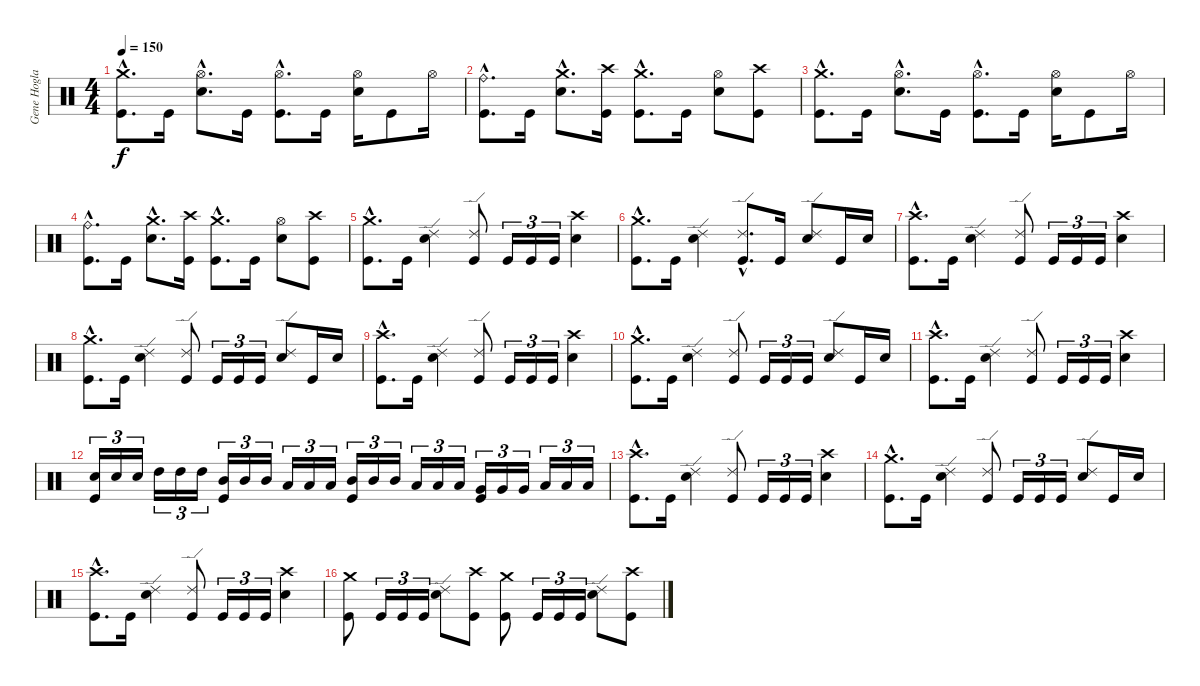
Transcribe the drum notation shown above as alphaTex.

\track ("Gene Hoglan" "Gene Hogla") {instrument percussion}
\staff {score}
\articulation defaults
\ts (4 4)
\tempo 150
\clef neutral
\ks c
("Crash medium (hit)"{hac} "Kick (hit)"{hac}).8{d dy f} "Kick (hit)".16 ("Hi-Hat (open)"{hac} "Electric Snare (hit)"{hac}).8{d} "Kick (hit)".16 ("Hi-Hat (open)"{hac} "Kick (hit)"{hac}).8{d} "Kick (hit)".16 ("Hi-Hat (open)" "Electric Snare (hit)").16 "Kick (hit)".8 "Hi-Hat (open)".16 |
("Ride (bell)"{hac} "Kick (hit)"{hac}).8{d} "Kick (hit)".16 ("Crash medium (hit)"{hac} "Electric Snare (hit)"{hac}).8{d} ("Crash high (hit)" "Kick (hit)").16 ("Crash medium (hit)"{hac} "Kick (hit)"{hac}).8{d} "Kick (hit)".16 ("Hi-Hat (open)" "Electric Snare (hit)").8 ("Crash high (hit)" "Kick (hit)").8 |
("Crash medium (hit)"{hac} "Kick (hit)"{hac}).8{d} "Kick (hit)".16 ("Hi-Hat (open)"{hac} "Electric Snare (hit)"{hac}).8{d} "Kick (hit)".16 ("Hi-Hat (open)"{hac} "Kick (hit)"{hac}).8{d} "Kick (hit)".16 ("Hi-Hat (open)" "Electric Snare (hit)").16 "Kick (hit)".8 "Hi-Hat (open)".16 |
("Ride (bell)"{hac} "Kick (hit)"{hac}).8{d} "Kick (hit)".16 ("Crash medium (hit)"{hac} "Electric Snare (hit)"{hac}).8{d} ("Crash high (hit)" "Kick (hit)").16 ("Crash medium (hit)"{hac} "Kick (hit)"{hac}).8{d} "Kick (hit)".16 ("Hi-Hat (open)" "Electric Snare (hit)").8 ("Crash high (hit)" "Kick (hit)").8 |
("Crash medium (hit)"{hac} "Kick (hit)"{hac}).8{d} "Kick (hit)".16 ("Ride (edge) 2" "Electric Snare (hit)").4 ("Ride (edge) 2" "Kick (hit)").8 "Kick (hit)".16{tu (3 2)} "Kick (hit)".16{tu (3 2)} "Kick (hit)".16{tu (3 2)} ("Crash high (hit)" "Electric Snare (hit)").4 |
("Crash medium (hit)"{hac} "Kick (hit)"{hac}).8{d} "Kick (hit)".16 ("Ride (edge) 2" "Electric Snare (hit)").4 ("Ride (edge) 2"{hac} "Kick (hit)"{hac}).8{d} "Kick (hit)".16 ("Ride (edge) 2" "Electric Snare (hit)").8 "Kick (hit)".16 "Electric Snare (hit)".16 |
("Crash high (hit)"{hac} "Kick (hit)"{hac}).8{d} "Kick (hit)".16 ("Ride (edge) 2" "Electric Snare (hit)").4 ("Ride (edge) 2" "Kick (hit)").8 "Kick (hit)".16{tu (3 2)} "Kick (hit)".16{tu (3 2)} "Kick (hit)".16{tu (3 2)} ("Crash high (hit)" "Electric Snare (hit)").4 |
("Crash medium (hit)"{hac} "Kick (hit)"{hac}).8{d} "Kick (hit)".16 ("Ride (edge) 2" "Electric Snare (hit)").4 ("Ride (edge) 2" "Kick (hit)").8 "Kick (hit)".16{tu (3 2)} "Kick (hit)".16{tu (3 2)} "Kick (hit)".16{tu (3 2)} ("Ride (edge) 2" "Electric Snare (hit)").8 "Kick (hit)".16 "Electric Snare (hit)".16 |
("Crash high (hit)"{hac} "Kick (hit)"{hac}).8{d} "Kick (hit)".16 ("Ride (edge) 2" "Electric Snare (hit)").4 ("Ride (edge) 2" "Kick (hit)").8 "Kick (hit)".16{tu (3 2)} "Kick (hit)".16{tu (3 2)} "Kick (hit)".16{tu (3 2)} ("Crash high (hit)" "Electric Snare (hit)").4 |
("Crash medium (hit)"{hac} "Kick (hit)"{hac}).8{d} "Kick (hit)".16 ("Ride (edge) 2" "Electric Snare (hit)").4 ("Ride (edge) 2" "Kick (hit)").8 "Kick (hit)".16{tu (3 2)} "Kick (hit)".16{tu (3 2)} "Kick (hit)".16{tu (3 2)} ("Ride (edge) 2" "Electric Snare (hit)").8 "Kick (hit)".16 "Electric Snare (hit)".16 |
("Crash high (hit)"{hac} "Kick (hit)"{hac}).8{d} "Kick (hit)".16 ("Ride (edge) 2" "Electric Snare (hit)").4 ("Ride (edge) 2" "Kick (hit)").8 "Kick (hit)".16{tu (3 2)} "Kick (hit)".16{tu (3 2)} "Kick (hit)".16{tu (3 2)} ("Crash high (hit)" "Electric Snare (hit)").4 |
("Electric Snare (hit)" "Kick (hit)").16{tu (3 2)} "Electric Snare (hit)".16{tu (3 2)} "Electric Snare (hit)".16{tu (3 2)} "High Tom (hit)".16{tu (3 2)} "High Tom (hit)".16{tu (3 2)} "High Tom (hit)".16{tu (3 2)} ("Mid Tom (hit)" "Kick (hit)").16{tu (3 2)} "Mid Tom (hit)".16{tu (3 2)} "Mid Tom (hit)".16{tu (3 2)} "Low Tom (hit)".16{tu (3 2)} "Low Tom (hit)".16{tu (3 2)} "Low Tom (hit)".16{tu (3 2)} ("Mid Tom (hit)" "Kick (hit)").16{tu (3 2)} "Mid Tom (hit)".16{tu (3 2)} "Mid Tom (hit)".16{tu (3 2)} "Low Tom (hit)".16{tu (3 2)} "Low Tom (hit)".16{tu (3 2)} "Low Tom (hit)".16{tu (3 2)} ("Very Low Tom (hit)" "Kick (hit)").16{tu (3 2)} "Very Low Tom (hit)".16{tu (3 2)} "Very Low Tom (hit)".16{tu (3 2)} "Low Floor Tom (hit)".16{tu (3 2)} "Low Floor Tom (hit)".16{tu (3 2)} "Low Floor Tom (hit)".16{tu (3 2)} |
("Crash high (hit)"{hac} "Kick (hit)"{hac}).8{d} "Kick (hit)".16 ("Ride (edge) 2" "Electric Snare (hit)").4 ("Ride (edge) 2" "Kick (hit)").8 "Kick (hit)".16{tu (3 2)} "Kick (hit)".16{tu (3 2)} "Kick (hit)".16{tu (3 2)} ("Crash high (hit)" "Electric Snare (hit)").4 |
("Crash medium (hit)"{hac} "Kick (hit)"{hac}).8{d} "Kick (hit)".16 ("Ride (edge) 2" "Electric Snare (hit)").4 ("Ride (edge) 2" "Kick (hit)").8 "Kick (hit)".16{tu (3 2)} "Kick (hit)".16{tu (3 2)} "Kick (hit)".16{tu (3 2)} ("Ride (edge) 2" "Electric Snare (hit)").8 "Kick (hit)".16 "Electric Snare (hit)".16 |
("Crash high (hit)"{hac} "Kick (hit)"{hac}).8{d} "Kick (hit)".16 ("Ride (edge) 2" "Electric Snare (hit)").4 ("Ride (edge) 2" "Kick (hit)").8 "Kick (hit)".16{tu (3 2)} "Kick (hit)".16{tu (3 2)} "Kick (hit)".16{tu (3 2)} ("Crash high (hit)" "Electric Snare (hit)").4 |
("Crash medium (hit)" "Kick (hit)").8 "Kick (hit)".16{tu (3 2)} "Kick (hit)".16{tu (3 2)} "Kick (hit)".16{tu (3 2)} ("Ride (edge) 2" "Electric Snare (hit)").8 ("Crash high (hit)" "Kick (hit)").8 ("Crash medium (hit)" "Kick (hit)").8 "Kick (hit)".16{tu (3 2)} "Kick (hit)".16{tu (3 2)} "Kick (hit)".16{tu (3 2)} ("Ride (edge) 2" "Electric Snare (hit)").8 ("Crash high (hit)" "Kick (hit)").8
